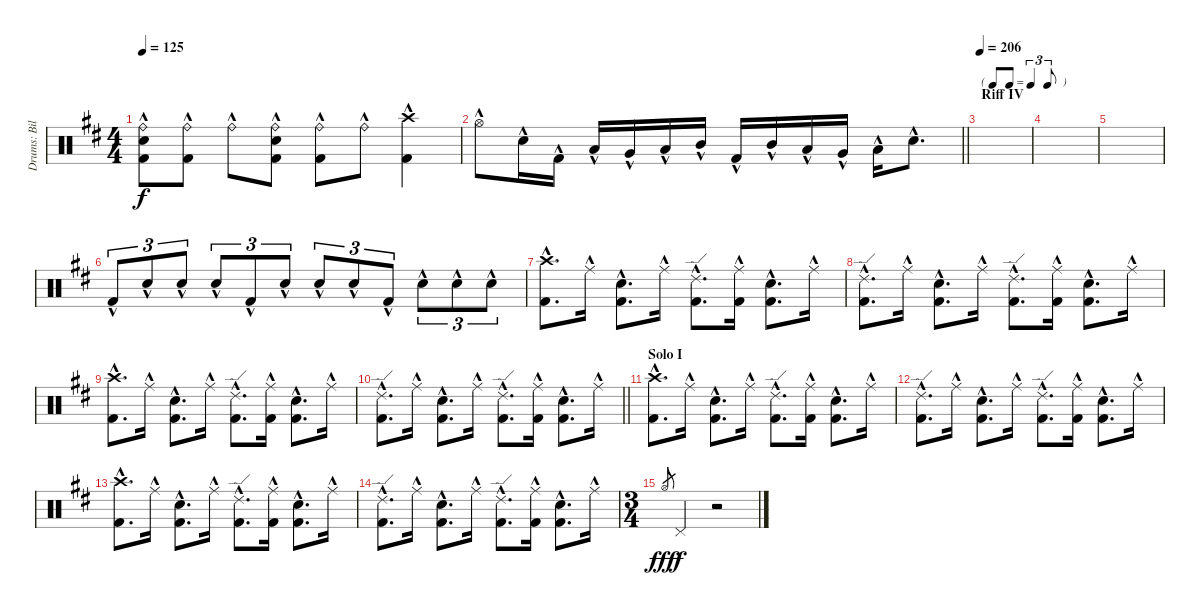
\track ("Drums: Bill" "Drums: Bil") {instrument percussion}
\staff {score}
\articulation defaults
\ts (4 4)
\tempo 125
\clef neutral
\ks d
("Ride (bell)"{hac} "Snare (hit) 2"{hac} "Kick (hit) 2"{hac}).8{dy f} ("Ride (bell)"{hac} "Kick (hit) 2"{hac}).8 "Ride (bell)"{hac}.8 ("Ride (bell)"{hac} "Snare (hit) 2"{hac} "Kick (hit) 2"{hac}).8 ("Ride (bell)"{hac} "Kick (hit) 2"{hac}).8 "Ride (bell)"{hac}.8 ("Crash high (hit)"{hac} "Kick (hit) 2"{hac}).4 |
\barLineRight lightlight "Hi-Hat (open)"{hac}.8 "Snare (hit) 2"{hac}.16 "Kick (hit) 2"{hac}.16 "Low Floor Tom (hit)"{hac}.16 "Very Low Tom (hit)"{hac}.16 "Low Tom (hit)"{hac}.16 "Mid Tom (hit)"{hac}.16 "Kick (hit) 2"{hac}.16 "Mid Tom (hit)"{hac}.16 "Low Tom (hit)"{hac}.16 "Very Low Tom (hit)"{hac}.16 "Low Floor Tom (hit)"{hac}.16 "Snare (hit) 2"{hac}.8{d}
|
\tf triplet8th
\section ("" "Riff IV")
\tempo 206
|
|
|
"Kick (hit) 2"{hac}.8{tu (3 2)} "Snare (hit) 2"{hac}.8{tu (3 2)} "Snare (hit) 2"{hac}.8{tu (3 2)} "Snare (hit) 2"{hac}.8{tu (3 2)} "Kick (hit) 2"{hac}.8{tu (3 2)} "Snare (hit) 2"{hac}.8{tu (3 2)} "Snare (hit) 2"{hac}.8{tu (3 2)} "Snare (hit) 2"{hac}.8{tu (3 2)} "Kick (hit) 2"{hac}.8{tu (3 2)} "Snare (hit) 2"{hac}.8{tu (3 2)} "Snare (hit) 2"{hac}.8{tu (3 2)} "Snare (hit) 2"{hac}.8{tu (3 2)} |
("Crash high (hit)"{hac} "Kick (hit) 2"{hac}).8{d} "Ride (middle)"{hac}.16 ("Snare (hit) 2"{hac} "Kick (hit) 2"{hac}).8{d} "Ride (middle)"{hac}.16 ("Ride (edge) 2"{hac} "Kick (hit) 2"{hac}).8{d} ("Ride (middle)"{hac} "Kick (hit) 2"{hac}).16 ("Snare (hit) 2"{hac} "Kick (hit) 2"{hac}).8{d} "Ride (middle)"{hac}.16 |
("Ride (edge) 2"{hac} "Kick (hit) 2"{hac}).8{d} "Ride (middle)"{hac}.16 ("Snare (hit) 2"{hac} "Kick (hit) 2"{hac}).8{d} "Ride (middle)"{hac}.16 ("Ride (edge) 2"{hac} "Kick (hit) 2"{hac}).8{d} ("Ride (middle)"{hac} "Kick (hit) 2"{hac}).16 ("Snare (hit) 2"{hac} "Kick (hit) 2"{hac}).8{d} "Ride (middle)"{hac}.16 |
("Crash high (hit)"{hac} "Kick (hit) 2"{hac}).8{d} "Ride (middle)"{hac}.16 ("Snare (hit) 2"{hac} "Kick (hit) 2"{hac}).8{d} "Ride (middle)"{hac}.16 ("Ride (edge) 2"{hac} "Kick (hit) 2"{hac}).8{d} ("Ride (middle)"{hac} "Kick (hit) 2"{hac}).16 ("Snare (hit) 2"{hac} "Kick (hit) 2"{hac}).8{d} "Ride (middle)"{hac}.16 |
\barLineRight lightlight
("Ride (edge) 2"{hac} "Kick (hit) 2"{hac}).8{d} "Ride (middle)"{hac}.16 ("Snare (hit) 2"{hac} "Kick (hit) 2"{hac}).8{d} "Ride (middle)"{hac}.16 ("Ride (edge) 2"{hac} "Kick (hit) 2"{hac}).8{d} ("Ride (middle)"{hac} "Kick (hit) 2"{hac}).16 ("Snare (hit) 2"{hac} "Kick (hit) 2"{hac}).8{d} "Ride (middle)"{hac}.16 |
\section ("" "Solo I")
("Crash high (hit)"{hac} "Kick (hit) 2"{hac}).8{d} "Ride (middle)"{hac}.16 ("Snare (hit) 2"{hac} "Kick (hit) 2"{hac}).8{d} "Ride (middle)"{hac}.16 ("Ride (edge) 2"{hac} "Kick (hit) 2"{hac}).8{d} ("Ride (middle)"{hac} "Kick (hit) 2"{hac}).16 ("Snare (hit) 2"{hac} "Kick (hit) 2"{hac}).8{d} "Ride (middle)"{hac}.16 |
("Ride (edge) 2"{hac} "Kick (hit) 2"{hac}).8{d} "Ride (middle)"{hac}.16 ("Snare (hit) 2"{hac} "Kick (hit) 2"{hac}).8{d} "Ride (middle)"{hac}.16 ("Ride (edge) 2"{hac} "Kick (hit) 2"{hac}).8{d} ("Ride (middle)"{hac} "Kick (hit) 2"{hac}).16 ("Snare (hit) 2"{hac} "Kick (hit) 2"{hac}).8{d} "Ride (middle)"{hac}.16 |
("Crash high (hit)"{hac} "Kick (hit) 2"{hac}).8{d} "Ride (middle)"{hac}.16 ("Snare (hit) 2"{hac} "Kick (hit) 2"{hac}).8{d} "Ride (middle)"{hac}.16 ("Ride (edge) 2"{hac} "Kick (hit) 2"{hac}).8{d} ("Ride (middle)"{hac} "Kick (hit) 2"{hac}).16 ("Snare (hit) 2"{hac} "Kick (hit) 2"{hac}).8{d} "Ride (middle)"{hac}.16 |
("Ride (edge) 2"{hac} "Kick (hit) 2"{hac}).8{d} "Ride (middle)"{hac}.16 ("Snare (hit) 2"{hac} "Kick (hit) 2"{hac}).8{d} "Ride (middle)"{hac}.16 ("Ride (edge) 2"{hac} "Kick (hit) 2"{hac}).8{d} ("Ride (middle)"{hac} "Kick (hit) 2"{hac}).16 ("Snare (hit) 2"{hac} "Kick (hit) 2"{hac}).8{d} "Ride (middle)"{hac}.16 |
\ts (3 4)
"Hi-Hat (open)".8{gr dy fff} "Pedal Hi-Hat (hit)".4{dy f} r.2
